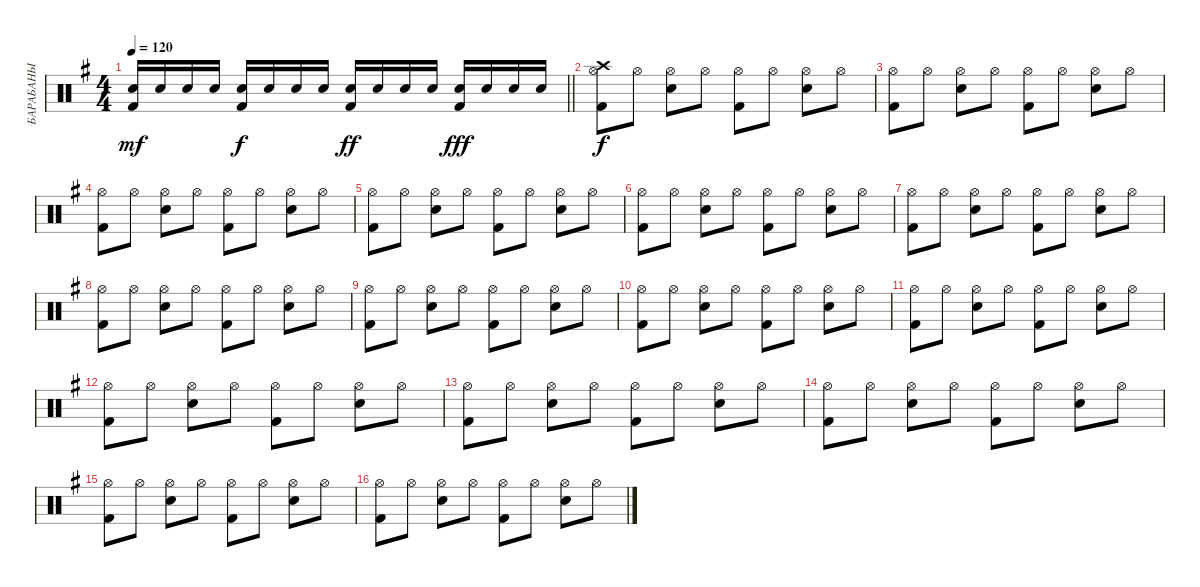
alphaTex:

\track ("БАРАБАНЫ" "БАРАБАНЫ") {instrument percussion}
\staff {score}
\articulation defaults
\ts (4 4)
\tempo 120
\clef neutral
\barLineRight lightlight
\ks g
("Electric Snare (hit)" "Kick (hit) 2").16{dy mf} "Electric Snare (hit)".16 "Electric Snare (hit)".16 "Electric Snare (hit)".16 ("Electric Snare (hit)" "Kick (hit) 2").16{dy f} "Electric Snare (hit)".16 "Electric Snare (hit)".16 "Electric Snare (hit)".16 ("Electric Snare (hit)" "Kick (hit) 2").16{dy ff} "Electric Snare (hit)".16 "Electric Snare (hit)".16 "Electric Snare (hit)".16 ("Electric Snare (hit)" "Kick (hit) 2").16{dy fff} "Electric Snare (hit)".16 "Electric Snare (hit)".16 "Electric Snare (hit)".16 |
("Hi-Hat (open)" "Crash high (hit)" "Kick (hit) 2").8{dy f} "Hi-Hat (open)".8 ("Hi-Hat (open)" "Electric Snare (hit)").8 "Hi-Hat (open)".8 ("Hi-Hat (open)" "Kick (hit) 2").8 "Hi-Hat (open)".8 ("Hi-Hat (open)" "Electric Snare (hit)").8 "Hi-Hat (open)".8 |
("Hi-Hat (open)" "Kick (hit) 2").8 "Hi-Hat (open)".8 ("Hi-Hat (open)" "Electric Snare (hit)").8 "Hi-Hat (open)".8 ("Hi-Hat (open)" "Kick (hit) 2").8 "Hi-Hat (open)".8 ("Hi-Hat (open)" "Electric Snare (hit)").8 "Hi-Hat (open)".8 |
("Hi-Hat (open)" "Kick (hit) 2").8 "Hi-Hat (open)".8 ("Hi-Hat (open)" "Electric Snare (hit)").8 "Hi-Hat (open)".8 ("Hi-Hat (open)" "Kick (hit) 2").8 "Hi-Hat (open)".8 ("Hi-Hat (open)" "Electric Snare (hit)").8 "Hi-Hat (open)".8 |
("Hi-Hat (open)" "Kick (hit) 2").8 "Hi-Hat (open)".8 ("Hi-Hat (open)" "Electric Snare (hit)").8 "Hi-Hat (open)".8 ("Hi-Hat (open)" "Kick (hit) 2").8 "Hi-Hat (open)".8 ("Hi-Hat (open)" "Electric Snare (hit)").8 "Hi-Hat (open)".8 |
("Hi-Hat (open)" "Kick (hit) 2").8 "Hi-Hat (open)".8 ("Hi-Hat (open)" "Electric Snare (hit)").8 "Hi-Hat (open)".8 ("Hi-Hat (open)" "Kick (hit) 2").8 "Hi-Hat (open)".8 ("Hi-Hat (open)" "Electric Snare (hit)").8 "Hi-Hat (open)".8 |
("Hi-Hat (open)" "Kick (hit) 2").8 "Hi-Hat (open)".8 ("Hi-Hat (open)" "Electric Snare (hit)").8 "Hi-Hat (open)".8 ("Hi-Hat (open)" "Kick (hit) 2").8 "Hi-Hat (open)".8 ("Hi-Hat (open)" "Electric Snare (hit)").8 "Hi-Hat (open)".8 |
("Hi-Hat (open)" "Kick (hit) 2").8 "Hi-Hat (open)".8 ("Hi-Hat (open)" "Electric Snare (hit)").8 "Hi-Hat (open)".8 ("Hi-Hat (open)" "Kick (hit) 2").8 "Hi-Hat (open)".8 ("Hi-Hat (open)" "Electric Snare (hit)").8 "Hi-Hat (open)".8 |
("Hi-Hat (open)" "Kick (hit) 2").8 "Hi-Hat (open)".8 ("Hi-Hat (open)" "Electric Snare (hit)").8 "Hi-Hat (open)".8 ("Hi-Hat (open)" "Kick (hit) 2").8 "Hi-Hat (open)".8 ("Hi-Hat (open)" "Electric Snare (hit)").8 "Hi-Hat (open)".8 |
("Hi-Hat (open)" "Kick (hit) 2").8 "Hi-Hat (open)".8 ("Hi-Hat (open)" "Electric Snare (hit)").8 "Hi-Hat (open)".8 ("Hi-Hat (open)" "Kick (hit) 2").8 "Hi-Hat (open)".8 ("Hi-Hat (open)" "Electric Snare (hit)").8 "Hi-Hat (open)".8 |
("Hi-Hat (open)" "Kick (hit) 2").8 "Hi-Hat (open)".8 ("Hi-Hat (open)" "Electric Snare (hit)").8 "Hi-Hat (open)".8 ("Hi-Hat (open)" "Kick (hit) 2").8 "Hi-Hat (open)".8 ("Hi-Hat (open)" "Electric Snare (hit)").8 "Hi-Hat (open)".8 |
("Hi-Hat (open)" "Kick (hit) 2").8 "Hi-Hat (open)".8 ("Hi-Hat (open)" "Electric Snare (hit)").8 "Hi-Hat (open)".8 ("Hi-Hat (open)" "Kick (hit) 2").8 "Hi-Hat (open)".8 ("Hi-Hat (open)" "Electric Snare (hit)").8 "Hi-Hat (open)".8 |
("Hi-Hat (open)" "Kick (hit) 2").8 "Hi-Hat (open)".8 ("Hi-Hat (open)" "Electric Snare (hit)").8 "Hi-Hat (open)".8 ("Hi-Hat (open)" "Kick (hit) 2").8 "Hi-Hat (open)".8 ("Hi-Hat (open)" "Electric Snare (hit)").8 "Hi-Hat (open)".8 |
("Hi-Hat (open)" "Kick (hit) 2").8 "Hi-Hat (open)".8 ("Hi-Hat (open)" "Electric Snare (hit)").8 "Hi-Hat (open)".8 ("Hi-Hat (open)" "Kick (hit) 2").8 "Hi-Hat (open)".8 ("Hi-Hat (open)" "Electric Snare (hit)").8 "Hi-Hat (open)".8 |
("Hi-Hat (open)" "Kick (hit) 2").8 "Hi-Hat (open)".8 ("Hi-Hat (open)" "Electric Snare (hit)").8 "Hi-Hat (open)".8 ("Hi-Hat (open)" "Kick (hit) 2").8 "Hi-Hat (open)".8 ("Hi-Hat (open)" "Electric Snare (hit)").8 "Hi-Hat (open)".8 |
("Hi-Hat (open)" "Kick (hit) 2").8 "Hi-Hat (open)".8 ("Hi-Hat (open)" "Electric Snare (hit)").8 "Hi-Hat (open)".8 ("Hi-Hat (open)" "Kick (hit) 2").8 "Hi-Hat (open)".8 ("Hi-Hat (open)" "Electric Snare (hit)").8 "Hi-Hat (open)".8
